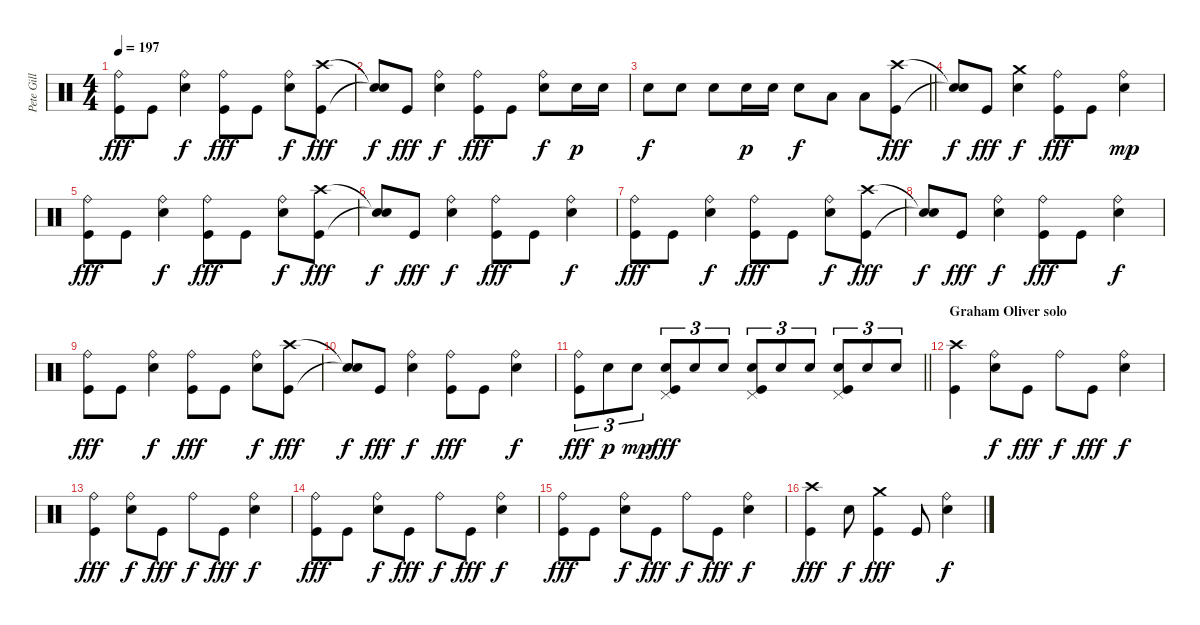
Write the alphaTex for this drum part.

\track ("Pete Gill" "Pete Gill") {instrument percussion}
\staff {score}
\articulation defaults
\ts (4 4)
\tempo 197
\clef neutral
\ks c
("Ride (bell)" "Kick (hit)").8{dy fff} "Kick (hit)".8 ("Ride (bell)" "Electric Snare (hit)").4{dy f} ("Ride (bell)" "Kick (hit)").8{dy fff} "Kick (hit)".8 ("Ride (bell)" "Electric Snare (hit)").8{dy f} ("Crash high (hit)" "Kick (hit)").8{dy fff} |
("Snare (hit)"{t} "Snare (hit)"{t}).8{dy f} "Kick (hit)".8{dy fff} ("Ride (bell)" "Electric Snare (hit)").4{dy f} ("Ride (bell)" "Kick (hit)").8{dy fff} "Kick (hit)".8 ("Ride (bell)" "Electric Snare (hit)").8{dy f} "Electric Snare (hit)".16{dy p} "Electric Snare (hit)".16 |
\barLineRight lightlight "Electric Snare (hit)".8{dy f} "Electric Snare (hit)".8 "Electric Snare (hit)".8 "Electric Snare (hit)".16{dy p} "Electric Snare (hit)".16 "Electric Snare (hit)".8{dy f} "Low Tom (hit)".8 "Low Tom (hit)".8
("Crash high (hit)" "Kick (hit)").8{dy fff} |
("Snare (hit)"{t} "Snare (hit)"{t}).8{dy f} "Kick (hit)".8{dy fff} ("Crash medium (hit)" "Electric Snare (hit)").4{dy f} ("Ride (bell)" "Kick (hit)").8{dy fff} "Kick (hit)".8 ("Ride (bell)" "Electric Snare (hit)").4{dy mp} |
("Ride (bell)" "Kick (hit)").8{dy fff} "Kick (hit)".8 ("Ride (bell)" "Electric Snare (hit)").4{dy f} ("Ride (bell)" "Kick (hit)").8{dy fff} "Kick (hit)".8 ("Ride (bell)" "Electric Snare (hit)").8{dy f} ("Crash high (hit)" "Kick (hit)").8{dy fff} |
("Snare (hit)"{t} "Snare (hit)"{t}).8{dy f} "Kick (hit)".8{dy fff} ("Ride (bell)" "Electric Snare (hit)").4{dy f} ("Ride (bell)" "Kick (hit)").8{dy fff} "Kick (hit)".8 ("Ride (bell)" "Electric Snare (hit)").4{dy f} |
("Ride (bell)" "Kick (hit)").8{dy fff} "Kick (hit)".8 ("Ride (bell)" "Electric Snare (hit)").4{dy f} ("Ride (bell)" "Kick (hit)").8{dy fff} "Kick (hit)".8 ("Ride (bell)" "Electric Snare (hit)").8{dy f} ("Crash high (hit)" "Kick (hit)").8{dy fff} |
("Snare (hit)"{t} "Snare (hit)"{t}).8{dy f} "Kick (hit)".8{dy fff} ("Ride (bell)" "Electric Snare (hit)").4{dy f} ("Ride (bell)" "Kick (hit)").8{dy fff} "Kick (hit)".8 ("Ride (bell)" "Electric Snare (hit)").4{dy f} |
("Ride (bell)" "Kick (hit)").8{dy fff} "Kick (hit)".8 ("Ride (bell)" "Electric Snare (hit)").4{dy f} ("Ride (bell)" "Kick (hit)").8{dy fff} "Kick (hit)".8 ("Ride (bell)" "Electric Snare (hit)").8{dy f} ("Crash high (hit)" "Kick (hit)").8{dy fff} |
("Snare (hit)"{t} "Snare (hit)"{t}).8{dy f} "Kick (hit)".8{dy fff} ("Ride (bell)" "Electric Snare (hit)").4{dy f} ("Ride (bell)" "Kick (hit)").8{dy fff} "Kick (hit)".8 ("Ride (bell)" "Electric Snare (hit)").4{dy f} |
\barLineRight lightlight
("Ride (bell)" "Kick (hit)").8{tu (3 2) dy fff} "Electric Snare (hit)".8{tu (3 2) dy p} "Electric Snare (hit)".8{tu (3 2) dy mp} ("Pedal Hi-Hat (hit)" "Electric Snare (hit)" "Kick (hit)").8{tu (3 2) dy fff} "Electric Snare (hit)".8{tu (3 2)} "Electric Snare (hit)".8{tu (3 2)} ("Pedal Hi-Hat (hit)" "Electric Snare (hit)" "Kick (hit)").8{tu (3 2)} "Electric Snare (hit)".8{tu (3 2)} "Electric Snare (hit)".8{tu (3 2)} ("Pedal Hi-Hat (hit)" "Electric Snare (hit)" "Kick (hit)").8{tu (3 2)} "Electric Snare (hit)".8{tu (3 2)} "Electric Snare (hit)".8{tu (3 2)} |
\section ("" "Graham Oliver solo")
("Crash high (hit)" "Kick (hit)").4 ("Ride (bell)" "Electric Snare (hit)").8{dy f} "Kick (hit)".8{dy fff} "Ride (bell)".8{dy f} "Kick (hit)".8{dy fff} ("Ride (bell)" "Electric Snare (hit)").4{dy f} |
("Ride (bell)" "Kick (hit)").4{dy fff} ("Ride (bell)" "Electric Snare (hit)").8{dy f} "Kick (hit)".8{dy fff} "Ride (bell)".8{dy f} "Kick (hit)".8{dy fff} ("Ride (bell)" "Electric Snare (hit)").4{dy f} |
("Ride (bell)" "Kick (hit)").8{dy fff} "Kick (hit)".8 ("Ride (bell)" "Electric Snare (hit)").8{dy f} "Kick (hit)".8{dy fff} "Ride (bell)".8{dy f} "Kick (hit)".8{dy fff} ("Ride (bell)" "Electric Snare (hit)").4{dy f} |
("Ride (bell)" "Kick (hit)").8{dy fff} "Kick (hit)".8 ("Ride (bell)" "Electric Snare (hit)").8{dy f} "Kick (hit)".8{dy fff} "Ride (bell)".8{dy f} "Kick (hit)".8{dy fff} ("Ride (bell)" "Electric Snare (hit)").4{dy f} |
("Crash high (hit)" "Kick (hit)").4{dy fff} "Electric Snare (hit)".8{dy f} ("Crash medium (hit)" "Kick (hit)").4{dy fff} "Kick (hit)".8 ("Ride (bell)" "Electric Snare (hit)").4{dy f}
